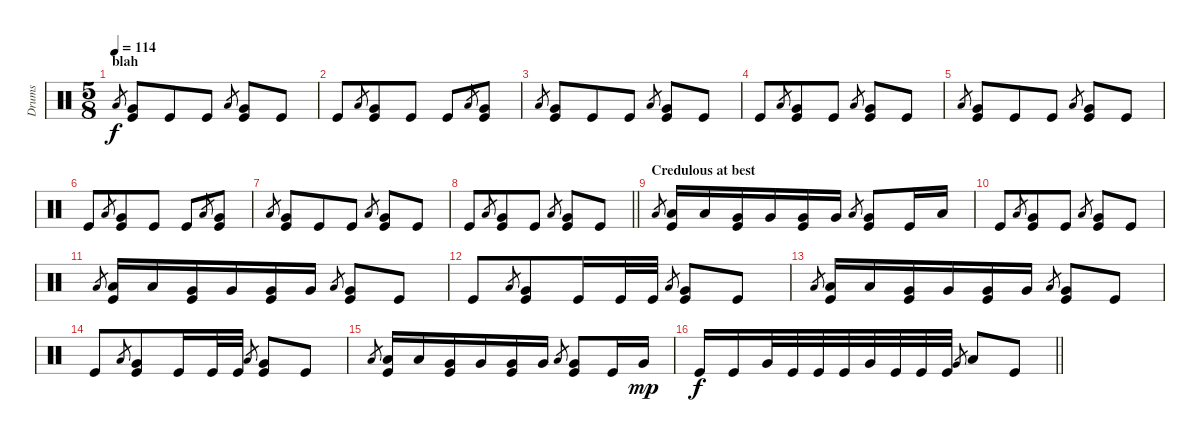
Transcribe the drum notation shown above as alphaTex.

\track ("Drums" "Drums") {instrument percussion}
\staff {score}
\articulation defaults
\ts (5 8)
\section ("" "blah")
\tempo 114
\clef neutral
\ks c "Low Floor Tom (hit)".8{gr dy f}
("Kick (hit)" "Very Low Tom (hit)").8{volume 16} "Kick (hit)".8 "Kick (hit)".8 "Low Floor Tom (hit)".8{gr} ("Kick (hit)" "Very Low Tom (hit)").8 "Kick (hit)".8 |
"Kick (hit)".8{volume 16} "Low Floor Tom (hit)".8{gr} ("Kick (hit)" "Very Low Tom (hit)").8 "Kick (hit)".8 "Kick (hit)".8 "Low Floor Tom (hit)".8{gr} ("Kick (hit)" "Very Low Tom (hit)").8 |
"Low Floor Tom (hit)".8{gr} ("Kick (hit)" "Very Low Tom (hit)").8 "Kick (hit)".8 "Kick (hit)".8 "Low Floor Tom (hit)".8{gr} ("Kick (hit)" "Very Low Tom (hit)").8 "Kick (hit)".8 |
"Kick (hit)".8 "Low Floor Tom (hit)".8{gr} ("Kick (hit)" "Very Low Tom (hit)").8 "Kick (hit)".8 "Low Floor Tom (hit)".8{gr} ("Kick (hit)" "Very Low Tom (hit)").8 "Kick (hit)".8 |
"Low Floor Tom (hit)".8{gr} ("Kick (hit)" "Very Low Tom (hit)").8 "Kick (hit)".8 "Kick (hit)".8 "Low Floor Tom (hit)".8{gr} ("Kick (hit)" "Very Low Tom (hit)").8 "Kick (hit)".8 |
"Kick (hit)".8 "Low Floor Tom (hit)".8{gr} ("Kick (hit)" "Very Low Tom (hit)").8 "Kick (hit)".8 "Kick (hit)".8 "Low Floor Tom (hit)".8{gr} ("Kick (hit)" "Very Low Tom (hit)").8 |
"Low Floor Tom (hit)".8{gr} ("Kick (hit)" "Very Low Tom (hit)").8 "Kick (hit)".8 "Kick (hit)".8 "Low Floor Tom (hit)".8{gr} ("Kick (hit)" "Very Low Tom (hit)").8 "Kick (hit)".8 |
\barLineRight lightlight "Kick (hit)".8 "Low Floor Tom (hit)".8{gr}
("Kick (hit)" "Very Low Tom (hit)").8 "Kick (hit)".8 "Low Floor Tom (hit)".8{gr} ("Kick (hit)" "Very Low Tom (hit)").8 "Kick (hit)".8 |
\section ("" "Credulous at best")
"Low Floor Tom (hit)".8{gr} ("Kick (hit)" "Low Tom (hit)").16 "Low Tom (hit)".16 ("Kick (hit)" "Very Low Tom (hit)").16 "Very Low Tom (hit)".16 ("Kick (hit)" "Very Low Tom (hit)").16 "Very Low Tom (hit)".16 "Low Floor Tom (hit)".8{gr} ("Kick (hit)" "Very Low Tom (hit)").8 "Kick (hit)".16 "Low Tom (hit)".16 |
"Kick (hit)".8 "Low Floor Tom (hit)".8{gr} ("Kick (hit)" "Very Low Tom (hit)").8 "Kick (hit)".8 "Low Floor Tom (hit)".8{gr} ("Kick (hit)" "Very Low Tom (hit)").8 "Kick (hit)".8 |
"Low Floor Tom (hit)".8{gr} ("Kick (hit)" "Low Tom (hit)").16 "Low Tom (hit)".16 ("Kick (hit)" "Very Low Tom (hit)").16 "Very Low Tom (hit)".16 ("Kick (hit)" "Very Low Tom (hit)").16 "Very Low Tom (hit)".16 "Low Floor Tom (hit)".8{gr} ("Kick (hit)" "Very Low Tom (hit)").8 "Kick (hit)".8 |
"Kick (hit)".8 "Low Floor Tom (hit)".8{gr} ("Kick (hit)" "Very Low Tom (hit)").8 "Kick (hit)".16 "Kick (hit)".32 "Kick (hit)".32 "Low Floor Tom (hit)".8{gr} ("Kick (hit)" "Very Low Tom (hit)").8 "Kick (hit)".8 |
"Low Floor Tom (hit)".8{gr} ("Kick (hit)" "Low Tom (hit)").16 "Low Tom (hit)".16 ("Kick (hit)" "Very Low Tom (hit)").16 "Very Low Tom (hit)".16 ("Kick (hit)" "Very Low Tom (hit)").16 "Very Low Tom (hit)".16 "Low Floor Tom (hit)".8{gr} ("Kick (hit)" "Very Low Tom (hit)").8 "Kick (hit)".8 |
"Kick (hit)".8 "Low Floor Tom (hit)".8{gr} ("Kick (hit)" "Very Low Tom (hit)").8 "Kick (hit)".16 "Kick (hit)".32 "Kick (hit)".32 "Low Floor Tom (hit)".8{gr} ("Kick (hit)" "Very Low Tom (hit)").8 "Kick (hit)".8 |
"Low Floor Tom (hit)".8{gr} ("Kick (hit)" "Low Tom (hit)").16 "Low Tom (hit)".16 ("Kick (hit)" "Very Low Tom (hit)").16 "Very Low Tom (hit)".16 ("Kick (hit)" "Very Low Tom (hit)").16 "Very Low Tom (hit)".16 "Low Floor Tom (hit)".8{gr} ("Kick (hit)" "Very Low Tom (hit)").8 "Kick (hit)".16 "Very Low Tom (hit)".16{dy mp} |
\barLineRight lightlight "Kick (hit)".16{dy f} "Kick (hit)".16 "Very Low Tom (hit)".32 "Kick (hit)".32 "Kick (hit)".32 "Kick (hit)".32 "Very Low Tom (hit)".32 "Kick (hit)".32 "Kick (hit)".32 "Kick (hit)".32 "Very Low Tom (hit)".8{gr} "Low Tom (hit)".8 "Kick (hit)".8
